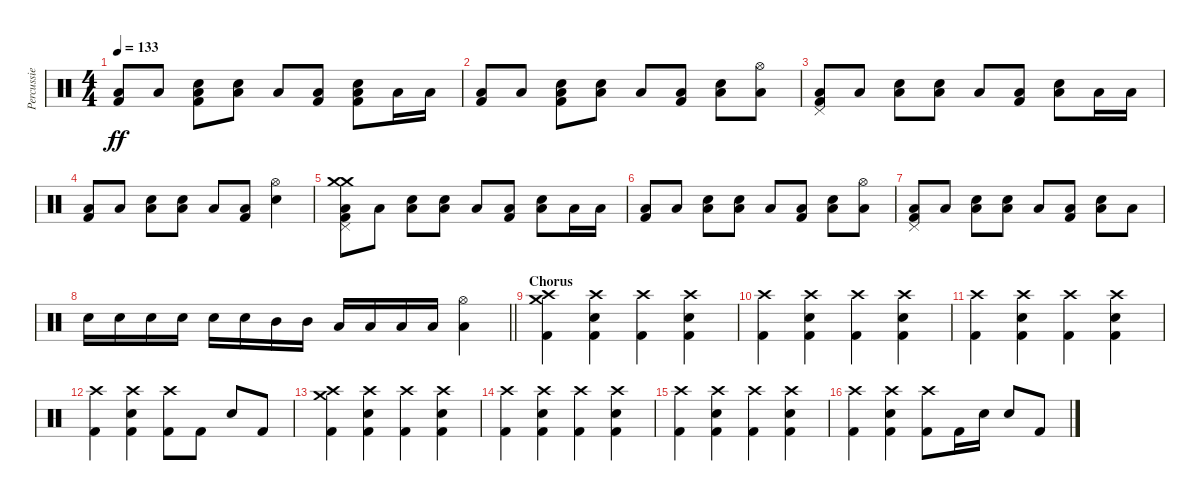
\track ("Percussie" "Percussie") {instrument percussion}
\staff {score}
\articulation defaults
\ts (4 4)
\tempo 133
\clef neutral
\ks c
("Low Floor Tom (hit)" "Kick (hit) 2").8{dy ff} "Low Floor Tom (hit)".8 ("Low Floor Tom (hit)" "Snare (hit) 2" "Kick (hit) 2").8 ("Low Floor Tom (hit)" "Snare (hit) 2").8 "Low Floor Tom (hit)".8 ("Low Floor Tom (hit)" "Kick (hit) 2").8 ("Low Floor Tom (hit)" "Snare (hit) 2" "Kick (hit) 2").8 "Low Floor Tom (hit)".16 "Low Floor Tom (hit)".16 |
("Low Floor Tom (hit)" "Kick (hit) 2").8 "Low Floor Tom (hit)".8 ("Low Floor Tom (hit)" "Snare (hit) 2" "Kick (hit) 2").8 ("Low Floor Tom (hit)" "Snare (hit) 2").8 "Low Floor Tom (hit)".8 ("Low Floor Tom (hit)" "Kick (hit) 2").8 ("Low Floor Tom (hit)" "Snare (hit) 2").8 ("Hi-Hat (open)" "Low Floor Tom (hit)").8 |
("Pedal Hi-Hat (hit)" "Low Floor Tom (hit)" "Kick (hit) 2").8 "Low Floor Tom (hit)".8 ("Low Floor Tom (hit)" "Snare (hit) 2").8 ("Low Floor Tom (hit)" "Snare (hit) 2").8 "Low Floor Tom (hit)".8 ("Low Floor Tom (hit)" "Kick (hit) 2").8 ("Low Floor Tom (hit)" "Snare (hit) 2").8 "Low Floor Tom (hit)".16 "Low Floor Tom (hit)".16 |
("Low Floor Tom (hit)" "Kick (hit) 2").8 "Low Floor Tom (hit)".8 ("Low Floor Tom (hit)" "Snare (hit) 2").8 ("Low Floor Tom (hit)" "Snare (hit) 2").8 "Low Floor Tom (hit)".8 ("Low Floor Tom (hit)" "Kick (hit) 2").8 ("Hi-Hat (open)" "Snare (hit) 2").4 |
("Crash medium (hit)" "Crash medium (hit)" "Pedal Hi-Hat (hit)" "Low Floor Tom (hit)" "Kick (hit) 2").8 "Low Floor Tom (hit)".8 ("Low Floor Tom (hit)" "Snare (hit) 2").8 ("Low Floor Tom (hit)" "Snare (hit) 2").8 "Low Floor Tom (hit)".8 ("Low Floor Tom (hit)" "Kick (hit) 2").8 ("Low Floor Tom (hit)" "Snare (hit) 2").8 "Low Floor Tom (hit)".16 "Low Floor Tom (hit)".16 |
("Low Floor Tom (hit)" "Kick (hit) 2").8 "Low Floor Tom (hit)".8 ("Low Floor Tom (hit)" "Snare (hit) 2").8 ("Low Floor Tom (hit)" "Snare (hit) 2").8 "Low Floor Tom (hit)".8 ("Low Floor Tom (hit)" "Kick (hit) 2").8 ("Low Floor Tom (hit)" "Snare (hit) 2").8 ("Hi-Hat (open)" "Low Floor Tom (hit)").8 |
("Pedal Hi-Hat (hit)" "Low Floor Tom (hit)" "Kick (hit) 2").8 "Low Floor Tom (hit)".8 ("Low Floor Tom (hit)" "Snare (hit) 2").8 ("Low Floor Tom (hit)" "Snare (hit) 2").8 "Low Floor Tom (hit)".8 ("Low Floor Tom (hit)" "Kick (hit) 2").8 ("Low Floor Tom (hit)" "Snare (hit) 2").8 "Low Floor Tom (hit)".8 |
\barLineRight lightlight "Snare (hit) 2".16 "Snare (hit) 2".16 "Snare (hit) 2".16 "Snare (hit) 2".16 "Snare (hit) 2".16 "Snare (hit) 2".16 "Mid Tom (hit)".16 "Mid Tom (hit)".16 "Low Tom (hit)".16 "Low Tom (hit)".16 "Low Floor Tom (hit)".16 "Low Floor Tom (hit)".16
("Hi-Hat (open)" "Low Floor Tom (hit)").4 |
\section ("" "Chorus")
("Crash medium (hit)" "Crash high (hit)" "Kick (hit) 2").4 ("Crash high (hit)" "Snare (hit) 2" "Kick (hit) 2").4 ("Crash high (hit)" "Kick (hit) 2").4 ("Crash high (hit)" "Snare (hit) 2" "Kick (hit) 2").4 |
("Crash high (hit)" "Kick (hit) 2").4 ("Crash high (hit)" "Snare (hit) 2" "Kick (hit) 2").4 ("Crash high (hit)" "Kick (hit) 2").4 ("Crash high (hit)" "Snare (hit) 2" "Kick (hit) 2").4 |
("Crash high (hit)" "Kick (hit) 2").4 ("Crash high (hit)" "Snare (hit) 2" "Kick (hit) 2").4 ("Crash high (hit)" "Kick (hit) 2").4 ("Crash high (hit)" "Snare (hit) 2" "Kick (hit) 2").4 |
("Crash high (hit)" "Kick (hit) 2").4 ("Crash high (hit)" "Snare (hit) 2" "Kick (hit) 2").4 ("Crash high (hit)" "Kick (hit) 2").8 "Kick (hit) 2".8 "Snare (hit) 2".8 "Kick (hit) 2".8 |
("Crash medium (hit)" "Crash high (hit)" "Kick (hit) 2").4 ("Crash high (hit)" "Snare (hit) 2" "Kick (hit) 2").4 ("Crash high (hit)" "Kick (hit) 2").4 ("Crash high (hit)" "Snare (hit) 2" "Kick (hit) 2").4 |
("Crash high (hit)" "Kick (hit) 2").4 ("Crash high (hit)" "Snare (hit) 2" "Kick (hit) 2").4 ("Crash high (hit)" "Kick (hit) 2").4 ("Crash high (hit)" "Snare (hit) 2" "Kick (hit) 2").4 |
("Crash high (hit)" "Kick (hit) 2").4 ("Crash high (hit)" "Snare (hit) 2" "Kick (hit) 2").4 ("Crash high (hit)" "Kick (hit) 2").4 ("Crash high (hit)" "Snare (hit) 2" "Kick (hit) 2").4 |
("Crash high (hit)" "Kick (hit) 2").4 ("Crash high (hit)" "Snare (hit) 2" "Kick (hit) 2").4 ("Crash high (hit)" "Kick (hit) 2").8 "Kick (hit) 2".16 "Snare (hit) 2".16 "Snare (hit) 2".8 "Kick (hit) 2".8
